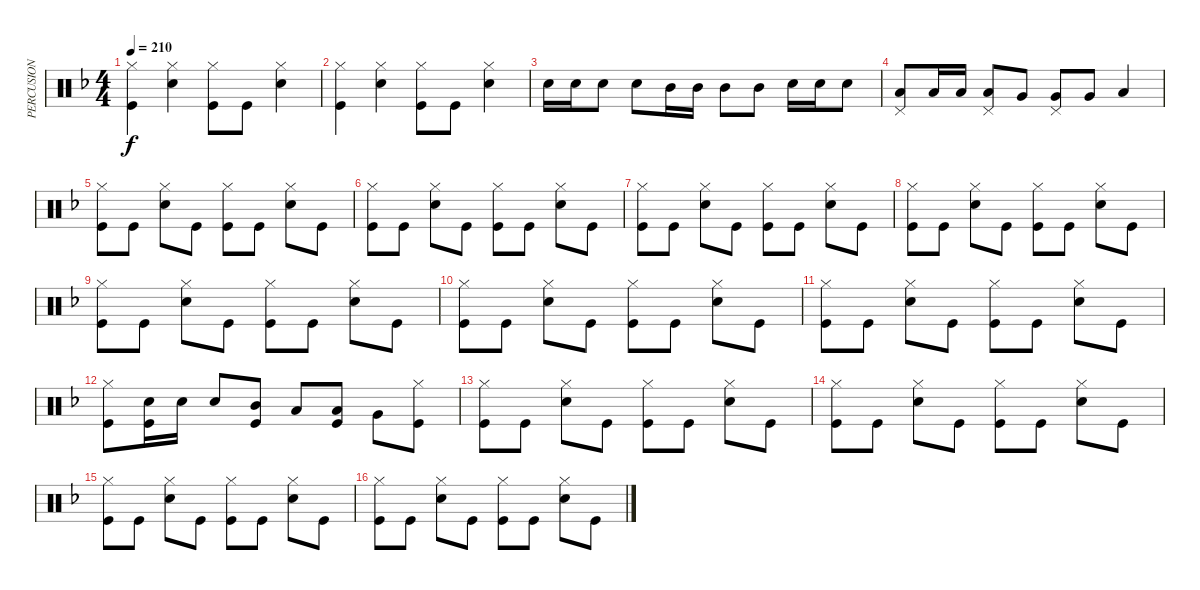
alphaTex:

\track ("PERCUSION" "PERCUSION") {instrument percussion}
\staff {score}
\articulation defaults
\ts (4 4)
\tempo 210
\clef neutral
\ks f
("Hi-Hat (closed)" "Kick (hit)").4{dy f} ("Hi-Hat (closed)" "Snare (hit) 2").4 ("Hi-Hat (closed)" "Kick (hit)").8 "Kick (hit)".8 ("Hi-Hat (closed)" "Snare (hit) 2").4 |
("Hi-Hat (closed)" "Kick (hit)").4 ("Hi-Hat (closed)" "Snare (hit) 2").4 ("Hi-Hat (closed)" "Kick (hit)").8 "Kick (hit)".8 ("Hi-Hat (closed)" "Snare (hit) 2").4 |
"Snare (hit) 2".16 "Snare (hit) 2".16 "Snare (hit) 2".8 "Snare (hit) 2".8 "Mid Tom (hit)".16 "Mid Tom (hit)".16 "Mid Tom (hit)".8 "Mid Tom (hit)".8 "Snare (hit) 2".16 "Snare (hit) 2".16 "Snare (hit) 2".8 |
("Low Tom (hit)" "Pedal Hi-Hat (hit)").8 "Low Tom (hit)".16 "Low Tom (hit)".16 ("Low Tom (hit)" "Pedal Hi-Hat (hit)").8 "Very Low Tom (hit)".8 ("Very Low Tom (hit)" "Pedal Hi-Hat (hit)").8 "Very Low Tom (hit)".8 "Low Floor Tom (hit)".4 |
("Hi-Hat (closed)" "Kick (hit)").8 "Kick (hit)".8 ("Hi-Hat (closed)" "Snare (hit) 2").8 "Kick (hit)".8 ("Hi-Hat (closed)" "Kick (hit)").8 "Kick (hit)".8 ("Hi-Hat (closed)" "Snare (hit) 2").8 "Kick (hit)".8 |
("Hi-Hat (closed)" "Kick (hit)").8 "Kick (hit)".8 ("Hi-Hat (closed)" "Snare (hit) 2").8 "Kick (hit)".8 ("Hi-Hat (closed)" "Kick (hit)").8 "Kick (hit)".8 ("Hi-Hat (closed)" "Snare (hit) 2").8 "Kick (hit)".8 |
("Hi-Hat (closed)" "Kick (hit)").8 "Kick (hit)".8 ("Hi-Hat (closed)" "Snare (hit) 2").8 "Kick (hit)".8 ("Hi-Hat (closed)" "Kick (hit)").8 "Kick (hit)".8 ("Hi-Hat (closed)" "Snare (hit) 2").8 "Kick (hit)".8 |
("Hi-Hat (closed)" "Kick (hit)").8 "Kick (hit)".8 ("Hi-Hat (closed)" "Snare (hit) 2").8 "Kick (hit)".8 ("Hi-Hat (closed)" "Kick (hit)").8 "Kick (hit)".8 ("Hi-Hat (closed)" "Snare (hit) 2").8 "Kick (hit)".8 |
("Hi-Hat (closed)" "Kick (hit)").8 "Kick (hit)".8 ("Hi-Hat (closed)" "Snare (hit) 2").8 "Kick (hit)".8 ("Hi-Hat (closed)" "Kick (hit)").8 "Kick (hit)".8 ("Hi-Hat (closed)" "Snare (hit) 2").8 "Kick (hit)".8 |
("Hi-Hat (closed)" "Kick (hit)").8 "Kick (hit)".8 ("Hi-Hat (closed)" "Snare (hit) 2").8 "Kick (hit)".8 ("Hi-Hat (closed)" "Kick (hit)").8 "Kick (hit)".8 ("Hi-Hat (closed)" "Snare (hit) 2").8 "Kick (hit)".8 |
("Hi-Hat (closed)" "Kick (hit)").8 "Kick (hit)".8 ("Hi-Hat (closed)" "Snare (hit) 2").8 "Kick (hit)".8 ("Hi-Hat (closed)" "Kick (hit)").8 "Kick (hit)".8 ("Hi-Hat (closed)" "Snare (hit) 2").8 "Kick (hit)".8 |
("Hi-Hat (closed)" "Kick (hit)").8 ("Snare (hit) 2" "Kick (hit)").16 "Snare (hit) 2".16 "Snare (hit) 2".8 ("Mid Tom (hit)" "Kick (hit)").8 "Low Tom (hit)".8 ("Low Tom (hit)" "Kick (hit)").8 "Very Low Tom (hit)".8 ("Hi-Hat (closed)" "Kick (hit)").8 |
("Hi-Hat (closed)" "Kick (hit)").8 "Kick (hit)".8 ("Hi-Hat (closed)" "Snare (hit) 2").8 "Kick (hit)".8 ("Hi-Hat (closed)" "Kick (hit)").8 "Kick (hit)".8 ("Hi-Hat (closed)" "Snare (hit) 2").8 "Kick (hit)".8 |
("Hi-Hat (closed)" "Kick (hit)").8 "Kick (hit)".8 ("Hi-Hat (closed)" "Snare (hit) 2").8 "Kick (hit)".8 ("Hi-Hat (closed)" "Kick (hit)").8 "Kick (hit)".8 ("Hi-Hat (closed)" "Snare (hit) 2").8 "Kick (hit)".8 |
("Hi-Hat (closed)" "Kick (hit)").8 "Kick (hit)".8 ("Hi-Hat (closed)" "Snare (hit) 2").8 "Kick (hit)".8 ("Hi-Hat (closed)" "Kick (hit)").8 "Kick (hit)".8 ("Hi-Hat (closed)" "Snare (hit) 2").8 "Kick (hit)".8 |
("Hi-Hat (closed)" "Kick (hit)").8 "Kick (hit)".8 ("Hi-Hat (closed)" "Snare (hit) 2").8 "Kick (hit)".8 ("Hi-Hat (closed)" "Kick (hit)").8 "Kick (hit)".8 ("Hi-Hat (closed)" "Snare (hit) 2").8 "Kick (hit)".8
